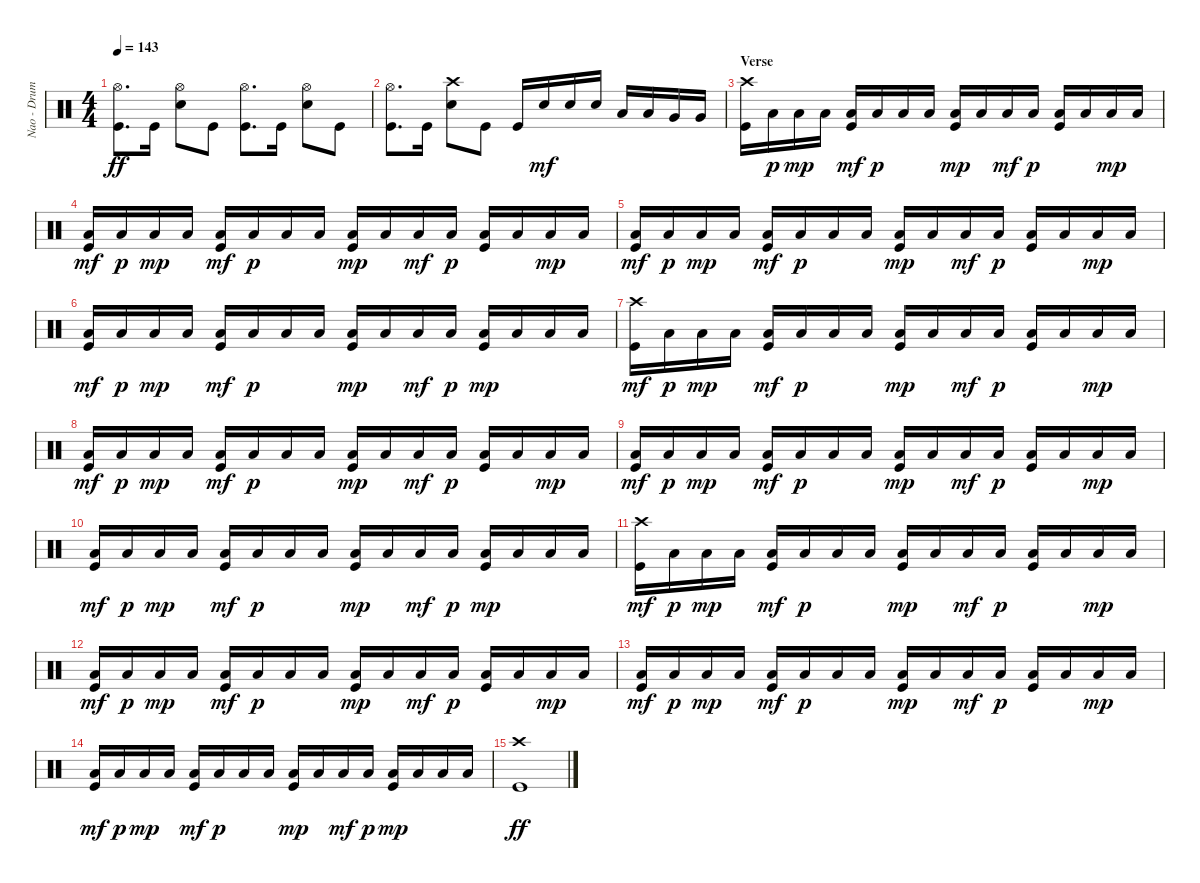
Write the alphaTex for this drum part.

\track ("Nao - Drums" "Nao - Drum") {instrument percussion}
\staff {score}
\articulation defaults
\ts (4 4)
\tempo 143
\clef neutral
\ks c
("Kick (hit)" "Hi-Hat (open)").8{d dy ff} "Kick (hit)".16 ("Hi-Hat (open)" "Snare (hit) 2").8 "Kick (hit)".8 ("Kick (hit)" "Hi-Hat (open)").8{d} "Kick (hit)".16 ("Hi-Hat (open)" "Snare (hit) 2").8 "Kick (hit)".8 |
("Kick (hit)" "Hi-Hat (open)").8{d} "Kick (hit)".16 ("Snare (hit) 2" "Crash high (hit)").8 "Kick (hit)".8 "Kick (hit)".16 "Snare (hit) 2".16{dy mf} "Snare (hit) 2".16 "Snare (hit) 2".16 "Low Tom (hit)".16 "Low Tom (hit)".16 "Very Low Tom (hit)".16 "Very Low Tom (hit)".16 |
\section ("" "Verse")
("Kick (hit)" "Crash high (hit)").16 "Low Floor Tom (hit)".16{dy p} "Low Floor Tom (hit)".16{dy mp} "Low Floor Tom (hit)".16 ("Low Floor Tom (hit)" "Kick (hit)").16{dy mf} "Low Floor Tom (hit)".16{dy p} "Low Floor Tom (hit)".16 "Low Floor Tom (hit)".16 ("Low Floor Tom (hit)" "Kick (hit)").16{dy mp} "Low Floor Tom (hit)".16 "Low Floor Tom (hit)".16{dy mf} "Low Floor Tom (hit)".16{dy p} ("Kick (hit)" "Low Floor Tom (hit)").16 "Low Floor Tom (hit)".16 "Low Floor Tom (hit)".16{dy mp} "Low Floor Tom (hit)".16 |
("Low Floor Tom (hit)" "Kick (hit)").16{dy mf} "Low Floor Tom (hit)".16{dy p} "Low Floor Tom (hit)".16{dy mp} "Low Floor Tom (hit)".16 ("Low Floor Tom (hit)" "Kick (hit)").16{dy mf} "Low Floor Tom (hit)".16{dy p} "Low Floor Tom (hit)".16 "Low Floor Tom (hit)".16 ("Low Floor Tom (hit)" "Kick (hit)").16{dy mp} "Low Floor Tom (hit)".16 "Low Floor Tom (hit)".16{dy mf} "Low Floor Tom (hit)".16{dy p} ("Kick (hit)" "Low Floor Tom (hit)").16 "Low Floor Tom (hit)".16 "Low Floor Tom (hit)".16{dy mp} "Low Floor Tom (hit)".16 |
("Low Floor Tom (hit)" "Kick (hit)").16{dy mf} "Low Floor Tom (hit)".16{dy p} "Low Floor Tom (hit)".16{dy mp} "Low Floor Tom (hit)".16 ("Low Floor Tom (hit)" "Kick (hit)").16{dy mf} "Low Floor Tom (hit)".16{dy p} "Low Floor Tom (hit)".16 "Low Floor Tom (hit)".16 ("Low Floor Tom (hit)" "Kick (hit)").16{dy mp} "Low Floor Tom (hit)".16 "Low Floor Tom (hit)".16{dy mf} "Low Floor Tom (hit)".16{dy p} ("Kick (hit)" "Low Floor Tom (hit)").16 "Low Floor Tom (hit)".16 "Low Floor Tom (hit)".16{dy mp} "Low Floor Tom (hit)".16 |
("Low Floor Tom (hit)" "Kick (hit)").16{dy mf} "Low Floor Tom (hit)".16{dy p} "Low Floor Tom (hit)".16{dy mp} "Low Floor Tom (hit)".16 ("Low Floor Tom (hit)" "Kick (hit)").16{dy mf} "Low Floor Tom (hit)".16{dy p} "Low Floor Tom (hit)".16 "Low Floor Tom (hit)".16 ("Low Floor Tom (hit)" "Kick (hit)").16{dy mp} "Low Floor Tom (hit)".16 "Low Floor Tom (hit)".16{dy mf} "Low Floor Tom (hit)".16{dy p} ("Kick (hit)" "Low Floor Tom (hit)").16{dy mp} "Low Floor Tom (hit)".16 "Low Floor Tom (hit)".16 "Low Floor Tom (hit)".16 |
("Kick (hit)" "Crash high (hit)").16{dy mf} "Low Floor Tom (hit)".16{dy p} "Low Floor Tom (hit)".16{dy mp} "Low Floor Tom (hit)".16 ("Low Floor Tom (hit)" "Kick (hit)").16{dy mf} "Low Floor Tom (hit)".16{dy p} "Low Floor Tom (hit)".16 "Low Floor Tom (hit)".16 ("Low Floor Tom (hit)" "Kick (hit)").16{dy mp} "Low Floor Tom (hit)".16 "Low Floor Tom (hit)".16{dy mf} "Low Floor Tom (hit)".16{dy p} ("Kick (hit)" "Low Floor Tom (hit)").16 "Low Floor Tom (hit)".16 "Low Floor Tom (hit)".16{dy mp} "Low Floor Tom (hit)".16 |
("Low Floor Tom (hit)" "Kick (hit)").16{dy mf} "Low Floor Tom (hit)".16{dy p} "Low Floor Tom (hit)".16{dy mp} "Low Floor Tom (hit)".16 ("Low Floor Tom (hit)" "Kick (hit)").16{dy mf} "Low Floor Tom (hit)".16{dy p} "Low Floor Tom (hit)".16 "Low Floor Tom (hit)".16 ("Low Floor Tom (hit)" "Kick (hit)").16{dy mp} "Low Floor Tom (hit)".16 "Low Floor Tom (hit)".16{dy mf} "Low Floor Tom (hit)".16{dy p} ("Kick (hit)" "Low Floor Tom (hit)").16 "Low Floor Tom (hit)".16 "Low Floor Tom (hit)".16{dy mp} "Low Floor Tom (hit)".16 |
("Low Floor Tom (hit)" "Kick (hit)").16{dy mf} "Low Floor Tom (hit)".16{dy p} "Low Floor Tom (hit)".16{dy mp} "Low Floor Tom (hit)".16 ("Low Floor Tom (hit)" "Kick (hit)").16{dy mf} "Low Floor Tom (hit)".16{dy p} "Low Floor Tom (hit)".16 "Low Floor Tom (hit)".16 ("Low Floor Tom (hit)" "Kick (hit)").16{dy mp} "Low Floor Tom (hit)".16 "Low Floor Tom (hit)".16{dy mf} "Low Floor Tom (hit)".16{dy p} ("Kick (hit)" "Low Floor Tom (hit)").16 "Low Floor Tom (hit)".16 "Low Floor Tom (hit)".16{dy mp} "Low Floor Tom (hit)".16 |
("Low Floor Tom (hit)" "Kick (hit)").16{dy mf} "Low Floor Tom (hit)".16{dy p} "Low Floor Tom (hit)".16{dy mp} "Low Floor Tom (hit)".16 ("Low Floor Tom (hit)" "Kick (hit)").16{dy mf} "Low Floor Tom (hit)".16{dy p} "Low Floor Tom (hit)".16 "Low Floor Tom (hit)".16 ("Low Floor Tom (hit)" "Kick (hit)").16{dy mp} "Low Floor Tom (hit)".16 "Low Floor Tom (hit)".16{dy mf} "Low Floor Tom (hit)".16{dy p} ("Kick (hit)" "Low Floor Tom (hit)").16{dy mp} "Low Floor Tom (hit)".16 "Low Floor Tom (hit)".16 "Low Floor Tom (hit)".16 |
("Kick (hit)" "Crash high (hit)").16{dy mf} "Low Floor Tom (hit)".16{dy p} "Low Floor Tom (hit)".16{dy mp} "Low Floor Tom (hit)".16 ("Low Floor Tom (hit)" "Kick (hit)").16{dy mf} "Low Floor Tom (hit)".16{dy p} "Low Floor Tom (hit)".16 "Low Floor Tom (hit)".16 ("Low Floor Tom (hit)" "Kick (hit)").16{dy mp} "Low Floor Tom (hit)".16 "Low Floor Tom (hit)".16{dy mf} "Low Floor Tom (hit)".16{dy p} ("Kick (hit)" "Low Floor Tom (hit)").16 "Low Floor Tom (hit)".16 "Low Floor Tom (hit)".16{dy mp} "Low Floor Tom (hit)".16 |
("Low Floor Tom (hit)" "Kick (hit)").16{dy mf} "Low Floor Tom (hit)".16{dy p} "Low Floor Tom (hit)".16{dy mp} "Low Floor Tom (hit)".16 ("Low Floor Tom (hit)" "Kick (hit)").16{dy mf} "Low Floor Tom (hit)".16{dy p} "Low Floor Tom (hit)".16 "Low Floor Tom (hit)".16 ("Low Floor Tom (hit)" "Kick (hit)").16{dy mp} "Low Floor Tom (hit)".16 "Low Floor Tom (hit)".16{dy mf} "Low Floor Tom (hit)".16{dy p} ("Kick (hit)" "Low Floor Tom (hit)").16 "Low Floor Tom (hit)".16 "Low Floor Tom (hit)".16{dy mp} "Low Floor Tom (hit)".16 |
("Low Floor Tom (hit)" "Kick (hit)").16{dy mf} "Low Floor Tom (hit)".16{dy p} "Low Floor Tom (hit)".16{dy mp} "Low Floor Tom (hit)".16 ("Low Floor Tom (hit)" "Kick (hit)").16{dy mf} "Low Floor Tom (hit)".16{dy p} "Low Floor Tom (hit)".16 "Low Floor Tom (hit)".16 ("Low Floor Tom (hit)" "Kick (hit)").16{dy mp} "Low Floor Tom (hit)".16 "Low Floor Tom (hit)".16{dy mf} "Low Floor Tom (hit)".16{dy p} ("Kick (hit)" "Low Floor Tom (hit)").16 "Low Floor Tom (hit)".16 "Low Floor Tom (hit)".16{dy mp} "Low Floor Tom (hit)".16 |
("Low Floor Tom (hit)" "Kick (hit)").16{dy mf} "Low Floor Tom (hit)".16{dy p} "Low Floor Tom (hit)".16{dy mp} "Low Floor Tom (hit)".16 ("Low Floor Tom (hit)" "Kick (hit)").16{dy mf} "Low Floor Tom (hit)".16{dy p} "Low Floor Tom (hit)".16 "Low Floor Tom (hit)".16 ("Low Floor Tom (hit)" "Kick (hit)").16{dy mp} "Low Floor Tom (hit)".16 "Low Floor Tom (hit)".16{dy mf} "Low Floor Tom (hit)".16{dy p} ("Kick (hit)" "Low Floor Tom (hit)").16{dy mp} "Low Floor Tom (hit)".16 "Low Floor Tom (hit)".16 "Low Floor Tom (hit)".16 |
("Crash high (hit)" "Kick (hit)").1{dy ff}
